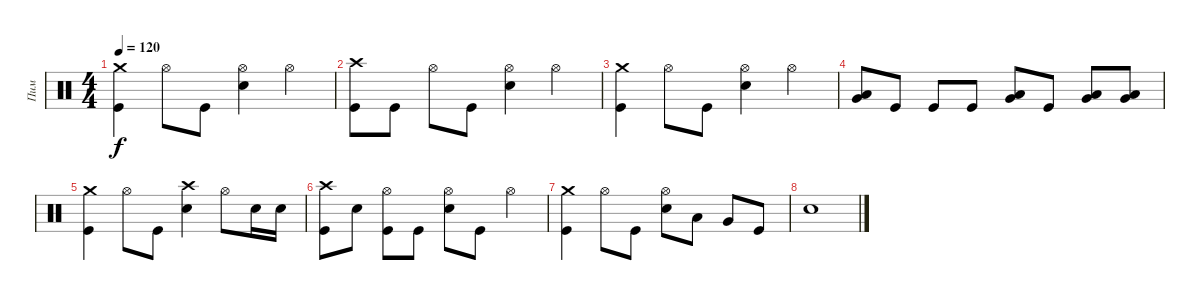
\track ("Пим" "Пим") {instrument percussion}
\staff {score}
\articulation defaults
\ts (4 4)
\tempo 120
\clef neutral
\ks c
("Crash medium (hit)" "Kick (hit)").4{dy f} "Hi-Hat (open)".8 "Kick (hit)".8 ("Hi-Hat (open)" "Snare (hit) 2").4 "Hi-Hat (open)".4 |
("Crash high (hit)" "Kick (hit)").8 "Kick (hit)".8 "Hi-Hat (open)".8 "Kick (hit)".8 ("Hi-Hat (open)" "Snare (hit) 2").4 "Hi-Hat (open)".4 |
("Crash medium (hit)" "Kick (hit)").4 "Hi-Hat (open)".8 "Kick (hit)".8 ("Hi-Hat (open)" "Snare (hit) 2").4 "Hi-Hat (open)".4 |
("Low Tom (hit)" "Very Low Tom (hit)").8 "Kick (hit)".8 "Kick (hit)".8 "Kick (hit)".8 ("Very Low Tom (hit)" "Low Floor Tom (hit)").8 "Kick (hit)".8 ("Low Tom (hit)" "Very Low Tom (hit)").8 ("Very Low Tom (hit)" "Low Floor Tom (hit)").8 |
("Crash medium (hit)" "Kick (hit)").4 "Hi-Hat (open)".8 "Kick (hit)".8 ("Crash high (hit)" "Snare (hit) 2").4 "Hi-Hat (open)".8 "Snare (hit) 2".16 "Snare (hit) 2".16 |
("Crash high (hit)" "Kick (hit)").8 "Snare (hit) 2".8 ("Hi-Hat (open)" "Kick (hit)").8 "Kick (hit)".8 ("Hi-Hat (open)" "Snare (hit) 2").8 "Kick (hit)".8 "Hi-Hat (open)".4 |
("Crash medium (hit)" "Kick (hit)").4 "Hi-Hat (open)".8 "Kick (hit)".8 ("Hi-Hat (open)" "Snare (hit) 2").8 "Low Tom (hit)".8 "Very Low Tom (hit)".8 "Kick (hit)".8 |
"Snare (hit) 2".1
